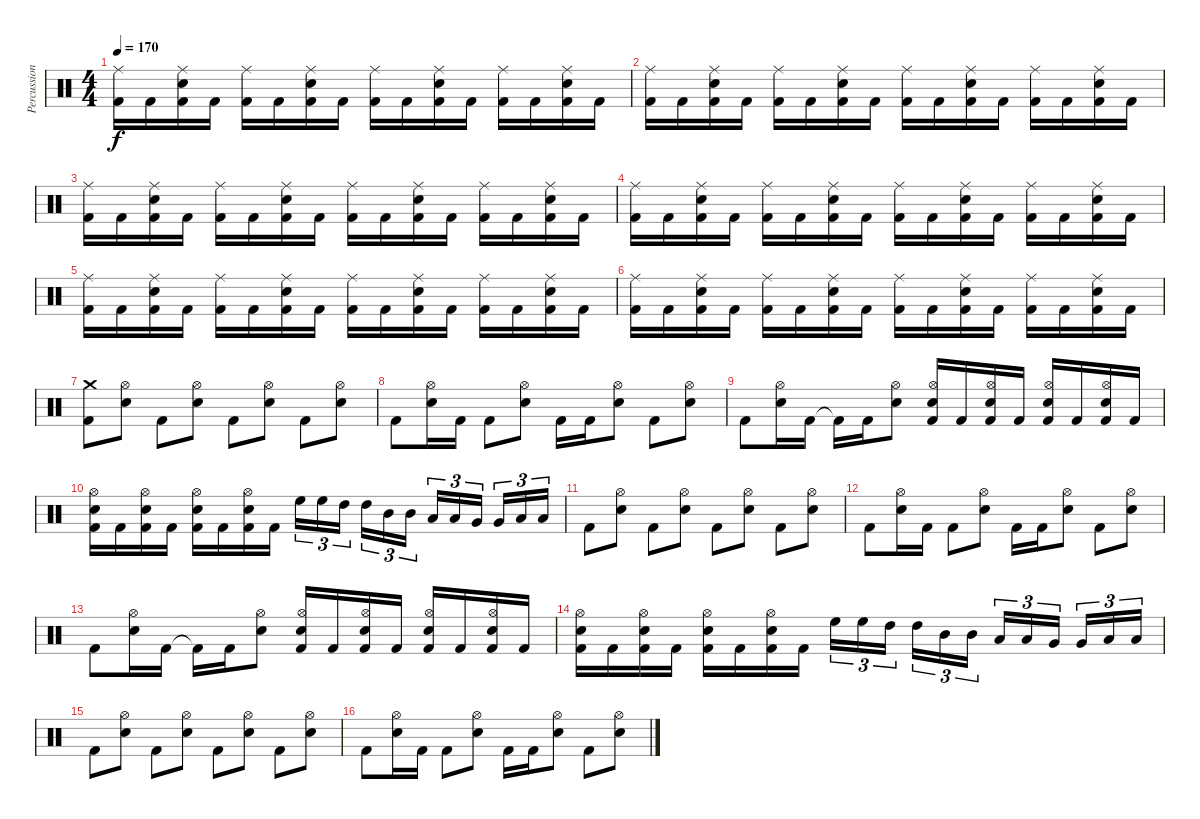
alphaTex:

\track ("Percussions" "Percussion") {instrument percussion}
\staff {score}
\articulation defaults
\ts (4 4)
\tempo 170
\clef neutral
\ks c
("Ride (middle)" "Kick (hit) 2").16{dy f} "Kick (hit) 2".16 ("Ride (middle)" "Snare (hit) 2" "Kick (hit) 2").16 "Kick (hit) 2".16 ("Ride (middle)" "Kick (hit) 2").16 "Kick (hit) 2".16 ("Ride (middle)" "Snare (hit) 2" "Kick (hit) 2").16 "Kick (hit) 2".16 ("Ride (middle)" "Kick (hit) 2").16 "Kick (hit) 2".16 ("Ride (middle)" "Snare (hit) 2" "Kick (hit) 2").16 "Kick (hit) 2".16 ("Ride (middle)" "Kick (hit) 2").16 "Kick (hit) 2".16 ("Ride (middle)" "Snare (hit) 2" "Kick (hit) 2").16 "Kick (hit) 2".16 |
("Ride (middle)" "Kick (hit) 2").16 "Kick (hit) 2".16 ("Ride (middle)" "Snare (hit) 2" "Kick (hit) 2").16 "Kick (hit) 2".16 ("Ride (middle)" "Kick (hit) 2").16 "Kick (hit) 2".16 ("Ride (middle)" "Snare (hit) 2" "Kick (hit) 2").16 "Kick (hit) 2".16 ("Ride (middle)" "Kick (hit) 2").16 "Kick (hit) 2".16 ("Ride (middle)" "Snare (hit) 2" "Kick (hit) 2").16 "Kick (hit) 2".16 ("Ride (middle)" "Kick (hit) 2").16 "Kick (hit) 2".16 ("Ride (middle)" "Snare (hit) 2" "Kick (hit) 2").16 "Kick (hit) 2".16 |
("Ride (middle)" "Kick (hit) 2").16 "Kick (hit) 2".16 ("Ride (middle)" "Snare (hit) 2" "Kick (hit) 2").16 "Kick (hit) 2".16 ("Ride (middle)" "Kick (hit) 2").16 "Kick (hit) 2".16 ("Ride (middle)" "Snare (hit) 2" "Kick (hit) 2").16 "Kick (hit) 2".16 ("Ride (middle)" "Kick (hit) 2").16 "Kick (hit) 2".16 ("Ride (middle)" "Snare (hit) 2" "Kick (hit) 2").16 "Kick (hit) 2".16 ("Ride (middle)" "Kick (hit) 2").16 "Kick (hit) 2".16 ("Ride (middle)" "Snare (hit) 2" "Kick (hit) 2").16 "Kick (hit) 2".16 |
("Ride (middle)" "Kick (hit) 2").16 "Kick (hit) 2".16 ("Ride (middle)" "Snare (hit) 2" "Kick (hit) 2").16 "Kick (hit) 2".16 ("Ride (middle)" "Kick (hit) 2").16 "Kick (hit) 2".16 ("Ride (middle)" "Snare (hit) 2" "Kick (hit) 2").16 "Kick (hit) 2".16 ("Ride (middle)" "Kick (hit) 2").16 "Kick (hit) 2".16 ("Ride (middle)" "Snare (hit) 2" "Kick (hit) 2").16 "Kick (hit) 2".16 ("Ride (middle)" "Kick (hit) 2").16 "Kick (hit) 2".16 ("Ride (middle)" "Snare (hit) 2" "Kick (hit) 2").16 "Kick (hit) 2".16 |
("Ride (middle)" "Kick (hit) 2").16 "Kick (hit) 2".16 ("Ride (middle)" "Snare (hit) 2" "Kick (hit) 2").16 "Kick (hit) 2".16 ("Ride (middle)" "Kick (hit) 2").16 "Kick (hit) 2".16 ("Ride (middle)" "Snare (hit) 2" "Kick (hit) 2").16 "Kick (hit) 2".16 ("Ride (middle)" "Kick (hit) 2").16 "Kick (hit) 2".16 ("Ride (middle)" "Snare (hit) 2" "Kick (hit) 2").16 "Kick (hit) 2".16 ("Ride (middle)" "Kick (hit) 2").16 "Kick (hit) 2".16 ("Ride (middle)" "Snare (hit) 2" "Kick (hit) 2").16 "Kick (hit) 2".16 |
("Ride (middle)" "Kick (hit) 2").16 "Kick (hit) 2".16 ("Ride (middle)" "Snare (hit) 2" "Kick (hit) 2").16 "Kick (hit) 2".16 ("Ride (middle)" "Kick (hit) 2").16 "Kick (hit) 2".16 ("Ride (middle)" "Snare (hit) 2" "Kick (hit) 2").16 "Kick (hit) 2".16 ("Ride (middle)" "Kick (hit) 2").16 "Kick (hit) 2".16 ("Ride (middle)" "Snare (hit) 2" "Kick (hit) 2").16 "Kick (hit) 2".16 ("Ride (middle)" "Kick (hit) 2").16 "Kick (hit) 2".16 ("Ride (middle)" "Snare (hit) 2" "Kick (hit) 2").16 "Kick (hit) 2".16 |
("Crash medium (hit)" "Kick (hit) 2").8 ("Hi-Hat (open)" "Snare (hit) 2").8 "Kick (hit) 2".8 ("Hi-Hat (open)" "Snare (hit) 2").8 "Kick (hit) 2".8 ("Hi-Hat (open)" "Snare (hit) 2").8 "Kick (hit) 2".8 ("Hi-Hat (open)" "Snare (hit) 2").8 |
"Kick (hit) 2".8 ("Hi-Hat (open)" "Snare (hit) 2").16 "Kick (hit) 2".16 "Kick (hit) 2".8 ("Hi-Hat (open)" "Snare (hit) 2").8 "Kick (hit) 2".16 "Kick (hit) 2".16 ("Hi-Hat (open)" "Snare (hit) 2").8 "Kick (hit) 2".8 ("Hi-Hat (open)" "Snare (hit) 2").8 |
"Kick (hit) 2".8 ("Hi-Hat (open)" "Snare (hit) 2").16 "Kick (hit) 2".16 "Kick (hit) 2"{t}.16 "Kick (hit) 2".16 ("Hi-Hat (open)" "Snare (hit) 2").8 ("Hi-Hat (open)" "Electric Snare (hit)" "Kick (hit) 2").16 "Kick (hit) 2".16 ("Hi-Hat (open)" "Electric Snare (hit)" "Kick (hit) 2").16 "Kick (hit) 2".16 ("Hi-Hat (open)" "Electric Snare (hit)" "Kick (hit) 2").16 "Kick (hit) 2".16 ("Hi-Hat (open)" "Electric Snare (hit)" "Kick (hit) 2").16 "Kick (hit) 2".16 |
("Hi-Hat (open)" "Snare (hit) 2" "Kick (hit) 2").16 "Kick (hit) 2".16 ("Hi-Hat (open)" "Snare (hit) 2" "Kick (hit) 2").16 "Kick (hit) 2".16 ("Hi-Hat (open)" "Snare (hit) 2" "Kick (hit) 2").16 "Kick (hit) 2".16 ("Hi-Hat (open)" "Snare (hit) 2" "Kick (hit) 2").16 "Kick (hit) 2".16 "High Floor Tom (hit)".16{tu (3 2)} "High Floor Tom (hit)".16{tu (3 2)} "High Tom (hit)".16{tu (3 2)} "High Tom (hit)".16{tu (3 2)} "Mid Tom (hit)".16{tu (3 2)} "Mid Tom (hit)".16{tu (3 2)} "Low Tom (hit)".16{tu (3 2)} "Low Tom (hit)".16{tu (3 2)} "Very Low Tom (hit)".16{tu (3 2)} "Very Low Tom (hit)".16{tu (3 2)} "Low Floor Tom (hit)".16{tu (3 2)} "Low Floor Tom (hit)".16{tu (3 2)} |
"Kick (hit) 2".8 ("Hi-Hat (open)" "Snare (hit) 2").8 "Kick (hit) 2".8 ("Hi-Hat (open)" "Snare (hit) 2").8 "Kick (hit) 2".8 ("Hi-Hat (open)" "Snare (hit) 2").8 "Kick (hit) 2".8 ("Hi-Hat (open)" "Snare (hit) 2").8 |
"Kick (hit) 2".8 ("Hi-Hat (open)" "Snare (hit) 2").16 "Kick (hit) 2".16 "Kick (hit) 2".8 ("Hi-Hat (open)" "Snare (hit) 2").8 "Kick (hit) 2".16 "Kick (hit) 2".16 ("Hi-Hat (open)" "Snare (hit) 2").8 "Kick (hit) 2".8 ("Hi-Hat (open)" "Snare (hit) 2").8 |
"Kick (hit) 2".8 ("Hi-Hat (open)" "Snare (hit) 2").16 "Kick (hit) 2".16 "Kick (hit) 2"{t}.16 "Kick (hit) 2".16 ("Hi-Hat (open)" "Snare (hit) 2").8 ("Hi-Hat (open)" "Electric Snare (hit)" "Kick (hit) 2").16 "Kick (hit) 2".16 ("Hi-Hat (open)" "Electric Snare (hit)" "Kick (hit) 2").16 "Kick (hit) 2".16 ("Hi-Hat (open)" "Electric Snare (hit)" "Kick (hit) 2").16 "Kick (hit) 2".16 ("Hi-Hat (open)" "Electric Snare (hit)" "Kick (hit) 2").16 "Kick (hit) 2".16 |
("Hi-Hat (open)" "Snare (hit) 2" "Kick (hit) 2").16 "Kick (hit) 2".16 ("Hi-Hat (open)" "Snare (hit) 2" "Kick (hit) 2").16 "Kick (hit) 2".16 ("Hi-Hat (open)" "Snare (hit) 2" "Kick (hit) 2").16 "Kick (hit) 2".16 ("Hi-Hat (open)" "Snare (hit) 2" "Kick (hit) 2").16 "Kick (hit) 2".16 "High Floor Tom (hit)".16{tu (3 2)} "High Floor Tom (hit)".16{tu (3 2)} "High Tom (hit)".16{tu (3 2)} "High Tom (hit)".16{tu (3 2)} "Mid Tom (hit)".16{tu (3 2)} "Mid Tom (hit)".16{tu (3 2)} "Low Tom (hit)".16{tu (3 2)} "Low Tom (hit)".16{tu (3 2)} "Very Low Tom (hit)".16{tu (3 2)} "Very Low Tom (hit)".16{tu (3 2)} "Low Floor Tom (hit)".16{tu (3 2)} "Low Floor Tom (hit)".16{tu (3 2)} |
"Kick (hit) 2".8 ("Hi-Hat (open)" "Snare (hit) 2").8 "Kick (hit) 2".8 ("Hi-Hat (open)" "Snare (hit) 2").8 "Kick (hit) 2".8 ("Hi-Hat (open)" "Snare (hit) 2").8 "Kick (hit) 2".8 ("Hi-Hat (open)" "Snare (hit) 2").8 |
"Kick (hit) 2".8 ("Hi-Hat (open)" "Snare (hit) 2").16 "Kick (hit) 2".16 "Kick (hit) 2".8 ("Hi-Hat (open)" "Snare (hit) 2").8 "Kick (hit) 2".16 "Kick (hit) 2".16 ("Hi-Hat (open)" "Snare (hit) 2").8 "Kick (hit) 2".8 ("Hi-Hat (open)" "Snare (hit) 2").8
